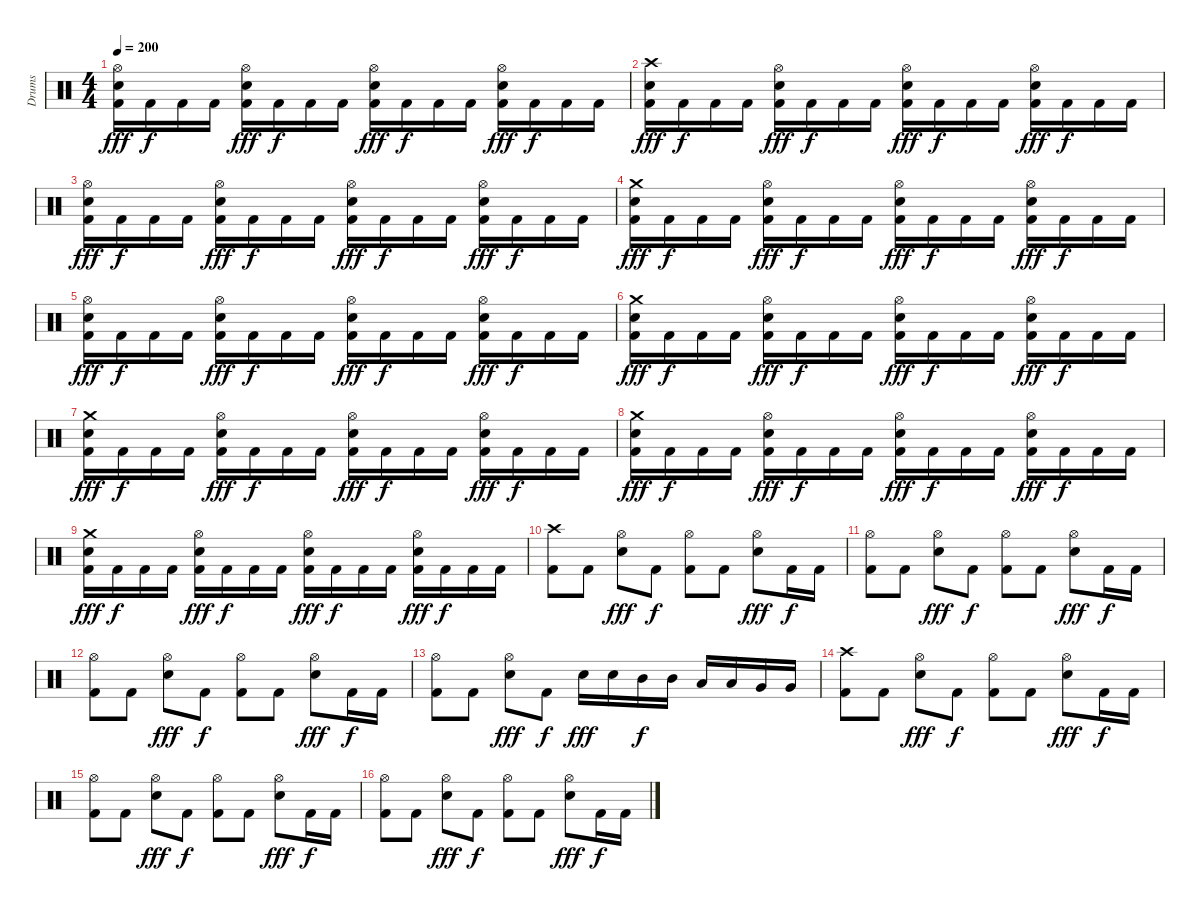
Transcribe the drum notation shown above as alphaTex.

\track ("Drums" "Drums") {instrument percussion}
\staff {score}
\articulation defaults
\ts (4 4)
\tempo 200
\clef neutral
\ks c
("Hi-Hat (open)" "Snare (hit) 2" "Kick (hit) 2").16{dy fff} "Kick (hit) 2".16{dy f} "Kick (hit) 2".16 "Kick (hit) 2".16 ("Hi-Hat (open)" "Snare (hit) 2" "Kick (hit) 2").16{dy fff} "Kick (hit) 2".16{dy f} "Kick (hit) 2".16 "Kick (hit) 2".16 ("Hi-Hat (open)" "Snare (hit) 2" "Kick (hit) 2").16{dy fff} "Kick (hit) 2".16{dy f} "Kick (hit) 2".16 "Kick (hit) 2".16 ("Hi-Hat (open)" "Snare (hit) 2" "Kick (hit) 2").16{dy fff} "Kick (hit) 2".16{dy f} "Kick (hit) 2".16 "Kick (hit) 2".16 |
("Crash high (hit)" "Snare (hit) 2" "Kick (hit) 2").16{dy fff} "Kick (hit) 2".16{dy f} "Kick (hit) 2".16 "Kick (hit) 2".16 ("Hi-Hat (open)" "Snare (hit) 2" "Kick (hit) 2").16{dy fff} "Kick (hit) 2".16{dy f} "Kick (hit) 2".16 "Kick (hit) 2".16 ("Hi-Hat (open)" "Snare (hit) 2" "Kick (hit) 2").16{dy fff} "Kick (hit) 2".16{dy f} "Kick (hit) 2".16 "Kick (hit) 2".16 ("Hi-Hat (open)" "Snare (hit) 2" "Kick (hit) 2").16{dy fff} "Kick (hit) 2".16{dy f} "Kick (hit) 2".16 "Kick (hit) 2".16 |
("Hi-Hat (open)" "Snare (hit) 2" "Kick (hit) 2").16{dy fff} "Kick (hit) 2".16{dy f} "Kick (hit) 2".16 "Kick (hit) 2".16 ("Hi-Hat (open)" "Snare (hit) 2" "Kick (hit) 2").16{dy fff} "Kick (hit) 2".16{dy f} "Kick (hit) 2".16 "Kick (hit) 2".16 ("Hi-Hat (open)" "Snare (hit) 2" "Kick (hit) 2").16{dy fff} "Kick (hit) 2".16{dy f} "Kick (hit) 2".16 "Kick (hit) 2".16 ("Hi-Hat (open)" "Snare (hit) 2" "Kick (hit) 2").16{dy fff} "Kick (hit) 2".16{dy f} "Kick (hit) 2".16 "Kick (hit) 2".16 |
("Crash medium (hit)" "Snare (hit) 2" "Kick (hit) 2").16{dy fff} "Kick (hit) 2".16{dy f} "Kick (hit) 2".16 "Kick (hit) 2".16 ("Hi-Hat (open)" "Snare (hit) 2" "Kick (hit) 2").16{dy fff} "Kick (hit) 2".16{dy f} "Kick (hit) 2".16 "Kick (hit) 2".16 ("Hi-Hat (open)" "Snare (hit) 2" "Kick (hit) 2").16{dy fff} "Kick (hit) 2".16{dy f} "Kick (hit) 2".16 "Kick (hit) 2".16 ("Hi-Hat (open)" "Snare (hit) 2" "Kick (hit) 2").16{dy fff} "Kick (hit) 2".16{dy f} "Kick (hit) 2".16 "Kick (hit) 2".16 |
("Hi-Hat (open)" "Snare (hit) 2" "Kick (hit) 2").16{dy fff} "Kick (hit) 2".16{dy f} "Kick (hit) 2".16 "Kick (hit) 2".16 ("Hi-Hat (open)" "Snare (hit) 2" "Kick (hit) 2").16{dy fff} "Kick (hit) 2".16{dy f} "Kick (hit) 2".16 "Kick (hit) 2".16 ("Hi-Hat (open)" "Snare (hit) 2" "Kick (hit) 2").16{dy fff} "Kick (hit) 2".16{dy f} "Kick (hit) 2".16 "Kick (hit) 2".16 ("Hi-Hat (open)" "Snare (hit) 2" "Kick (hit) 2").16{dy fff} "Kick (hit) 2".16{dy f} "Kick (hit) 2".16 "Kick (hit) 2".16 |
("Crash medium (hit)" "Snare (hit) 2" "Kick (hit) 2").16{dy fff} "Kick (hit) 2".16{dy f} "Kick (hit) 2".16 "Kick (hit) 2".16 ("Hi-Hat (open)" "Snare (hit) 2" "Kick (hit) 2").16{dy fff} "Kick (hit) 2".16{dy f} "Kick (hit) 2".16 "Kick (hit) 2".16 ("Hi-Hat (open)" "Snare (hit) 2" "Kick (hit) 2").16{dy fff} "Kick (hit) 2".16{dy f} "Kick (hit) 2".16 "Kick (hit) 2".16 ("Hi-Hat (open)" "Snare (hit) 2" "Kick (hit) 2").16{dy fff} "Kick (hit) 2".16{dy f} "Kick (hit) 2".16 "Kick (hit) 2".16 |
("Crash medium (hit)" "Snare (hit) 2" "Kick (hit) 2").16{dy fff} "Kick (hit) 2".16{dy f} "Kick (hit) 2".16 "Kick (hit) 2".16 ("Hi-Hat (open)" "Snare (hit) 2" "Kick (hit) 2").16{dy fff} "Kick (hit) 2".16{dy f} "Kick (hit) 2".16 "Kick (hit) 2".16 ("Hi-Hat (open)" "Snare (hit) 2" "Kick (hit) 2").16{dy fff} "Kick (hit) 2".16{dy f} "Kick (hit) 2".16 "Kick (hit) 2".16 ("Hi-Hat (open)" "Snare (hit) 2" "Kick (hit) 2").16{dy fff} "Kick (hit) 2".16{dy f} "Kick (hit) 2".16 "Kick (hit) 2".16 |
("Crash medium (hit)" "Snare (hit) 2" "Kick (hit) 2").16{dy fff} "Kick (hit) 2".16{dy f} "Kick (hit) 2".16 "Kick (hit) 2".16 ("Hi-Hat (open)" "Snare (hit) 2" "Kick (hit) 2").16{dy fff} "Kick (hit) 2".16{dy f} "Kick (hit) 2".16 "Kick (hit) 2".16 ("Hi-Hat (open)" "Snare (hit) 2" "Kick (hit) 2").16{dy fff} "Kick (hit) 2".16{dy f} "Kick (hit) 2".16 "Kick (hit) 2".16 ("Hi-Hat (open)" "Snare (hit) 2" "Kick (hit) 2").16{dy fff} "Kick (hit) 2".16{dy f} "Kick (hit) 2".16 "Kick (hit) 2".16 |
("Crash medium (hit)" "Snare (hit) 2" "Kick (hit) 2").16{dy fff} "Kick (hit) 2".16{dy f} "Kick (hit) 2".16 "Kick (hit) 2".16 ("Hi-Hat (open)" "Snare (hit) 2" "Kick (hit) 2").16{dy fff} "Kick (hit) 2".16{dy f} "Kick (hit) 2".16 "Kick (hit) 2".16 ("Hi-Hat (open)" "Snare (hit) 2" "Kick (hit) 2").16{dy fff} "Kick (hit) 2".16{dy f} "Kick (hit) 2".16 "Kick (hit) 2".16 ("Hi-Hat (open)" "Snare (hit) 2" "Kick (hit) 2").16{dy fff} "Kick (hit) 2".16{dy f} "Kick (hit) 2".16 "Kick (hit) 2".16 |
("Crash high (hit)" "Kick (hit) 2").8 "Kick (hit) 2".8 ("Hi-Hat (open)" "Snare (hit) 2").8{dy fff} "Kick (hit) 2".8{dy f} ("Hi-Hat (open)" "Kick (hit) 2").8 "Kick (hit) 2".8 ("Hi-Hat (open)" "Snare (hit) 2").8{dy fff} "Kick (hit) 2".16{dy f} "Kick (hit) 2".16 |
("Hi-Hat (open)" "Kick (hit) 2").8 "Kick (hit) 2".8 ("Hi-Hat (open)" "Snare (hit) 2").8{dy fff} "Kick (hit) 2".8{dy f} ("Hi-Hat (open)" "Kick (hit) 2").8 "Kick (hit) 2".8 ("Hi-Hat (open)" "Snare (hit) 2").8{dy fff} "Kick (hit) 2".16{dy f} "Kick (hit) 2".16 |
("Hi-Hat (open)" "Kick (hit) 2").8 "Kick (hit) 2".8 ("Hi-Hat (open)" "Snare (hit) 2").8{dy fff} "Kick (hit) 2".8{dy f} ("Hi-Hat (open)" "Kick (hit) 2").8 "Kick (hit) 2".8 ("Hi-Hat (open)" "Snare (hit) 2").8{dy fff} "Kick (hit) 2".16{dy f} "Kick (hit) 2".16 |
("Hi-Hat (open)" "Kick (hit) 2").8 "Kick (hit) 2".8 ("Hi-Hat (open)" "Snare (hit) 2").8{dy fff} "Kick (hit) 2".8{dy f} "Snare (hit) 2".16{dy fff} "Snare (hit) 2".16 "Mid Tom (hit)".16{dy f} "Mid Tom (hit)".16 "Low Tom (hit)".16 "Low Tom (hit)".16 "Very Low Tom (hit)".16 "Very Low Tom (hit)".16 |
("Crash high (hit)" "Kick (hit) 2").8 "Kick (hit) 2".8 ("Hi-Hat (open)" "Snare (hit) 2").8{dy fff} "Kick (hit) 2".8{dy f} ("Hi-Hat (open)" "Kick (hit) 2").8 "Kick (hit) 2".8 ("Hi-Hat (open)" "Snare (hit) 2").8{dy fff} "Kick (hit) 2".16{dy f} "Kick (hit) 2".16 |
("Hi-Hat (open)" "Kick (hit) 2").8 "Kick (hit) 2".8 ("Hi-Hat (open)" "Snare (hit) 2").8{dy fff} "Kick (hit) 2".8{dy f} ("Hi-Hat (open)" "Kick (hit) 2").8 "Kick (hit) 2".8 ("Hi-Hat (open)" "Snare (hit) 2").8{dy fff} "Kick (hit) 2".16{dy f} "Kick (hit) 2".16 |
("Hi-Hat (open)" "Kick (hit) 2").8 "Kick (hit) 2".8 ("Hi-Hat (open)" "Snare (hit) 2").8{dy fff} "Kick (hit) 2".8{dy f} ("Hi-Hat (open)" "Kick (hit) 2").8 "Kick (hit) 2".8 ("Hi-Hat (open)" "Snare (hit) 2").8{dy fff} "Kick (hit) 2".16{dy f} "Kick (hit) 2".16
